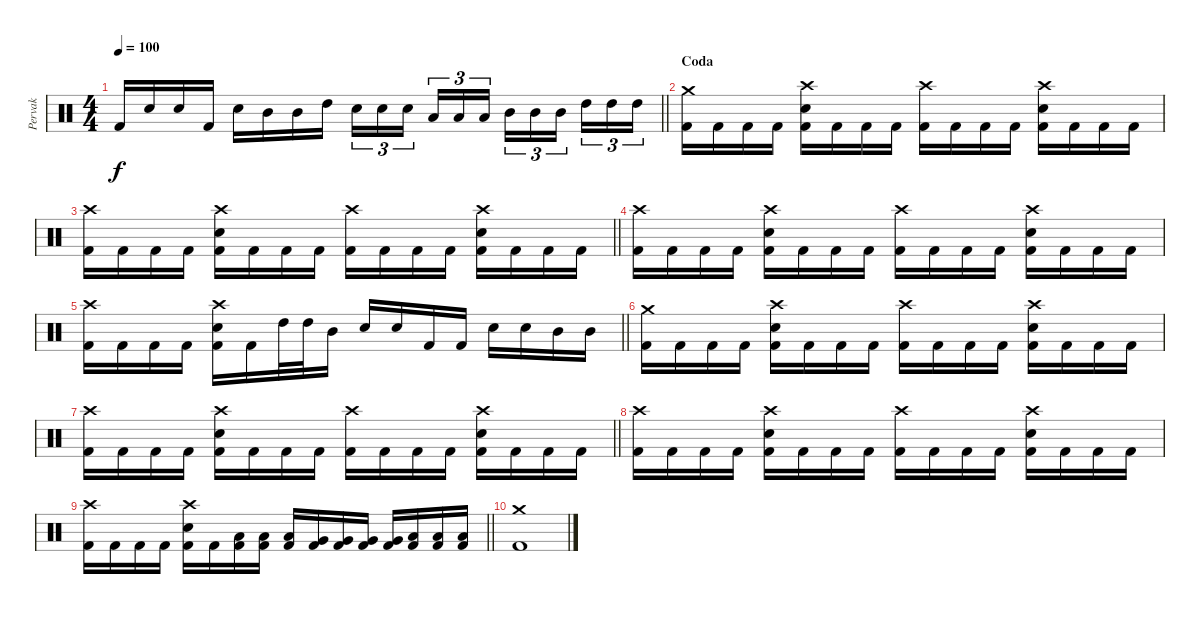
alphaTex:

\track ("Pervak" "Pervak") {instrument percussion}
\staff {score}
\articulation defaults
\ts (4 4)
\tempo 100
\clef neutral
\barLineRight lightlight
\ks c "Kick (hit) 2".16{dy f} "Electric Snare (hit)".16 "Electric Snare (hit)".16 "Kick (hit) 2".16 "Electric Snare (hit)".16 "Mid Tom (hit)".16 "Mid Tom (hit)".16 "High Tom (hit)".16 "Electric Snare (hit)".16{tu (3 2)} "Electric Snare (hit)".16{tu (3 2)} "Electric Snare (hit)".16{tu (3 2) beam splitsecondary} "Low Tom (hit)".16{tu (3 2)} "Low Tom (hit)".16{tu (3 2)} "Low Tom (hit)".16{tu (3 2)} "Mid Tom (hit)".16{tu (3 2)} "Mid Tom (hit)".16{tu (3 2)} "Mid Tom (hit)".16{tu (3 2) beam splitsecondary} "High Tom (hit)".16{tu (3 2)} "High Tom (hit)".16{tu (3 2)} "High Tom (hit)".16{tu (3 2)}
|
\section ("" "Coda")
("Crash medium (hit)" "Kick (hit) 2").16 "Kick (hit) 2".16 "Kick (hit) 2".16 "Kick (hit) 2".16 ("Crash high (hit)" "Electric Snare (hit)" "Kick (hit) 2").16 "Kick (hit) 2".16 "Kick (hit) 2".16 "Kick (hit) 2".16 ("Crash high (hit)" "Kick (hit) 2").16 "Kick (hit) 2".16 "Kick (hit) 2".16 "Kick (hit) 2".16 ("Crash high (hit)" "Electric Snare (hit)" "Kick (hit) 2").16 "Kick (hit) 2".16 "Kick (hit) 2".16 "Kick (hit) 2".16 |
\barLineRight lightlight
("Crash high (hit)" "Kick (hit) 2").16 "Kick (hit) 2".16 "Kick (hit) 2".16 "Kick (hit) 2".16 ("Crash high (hit)" "Electric Snare (hit)" "Kick (hit) 2").16 "Kick (hit) 2".16 "Kick (hit) 2".16 "Kick (hit) 2".16 ("Crash high (hit)" "Kick (hit) 2").16 "Kick (hit) 2".16 "Kick (hit) 2".16 "Kick (hit) 2".16 ("Crash high (hit)" "Electric Snare (hit)" "Kick (hit) 2").16 "Kick (hit) 2".16 "Kick (hit) 2".16 "Kick (hit) 2".16 |
("Crash high (hit)" "Kick (hit) 2").16 "Kick (hit) 2".16 "Kick (hit) 2".16 "Kick (hit) 2".16 ("Crash high (hit)" "Electric Snare (hit)" "Kick (hit) 2").16 "Kick (hit) 2".16 "Kick (hit) 2".16 "Kick (hit) 2".16 ("Crash high (hit)" "Kick (hit) 2").16 "Kick (hit) 2".16 "Kick (hit) 2".16 "Kick (hit) 2".16 ("Crash high (hit)" "Electric Snare (hit)" "Kick (hit) 2").16 "Kick (hit) 2".16 "Kick (hit) 2".16 "Kick (hit) 2".16 |
\barLineRight lightlight
("Crash high (hit)" "Kick (hit) 2").16 "Kick (hit) 2".16 "Kick (hit) 2".16 "Kick (hit) 2".16 ("Crash high (hit)" "Electric Snare (hit)" "Kick (hit) 2").16 "Kick (hit) 2".16 "High Tom (hit)".32 "High Tom (hit)".32 "Mid Tom (hit)".16 "Electric Snare (hit)".16 "Electric Snare (hit)".16 "Kick (hit) 2".16 "Kick (hit) 2".16 "Electric Snare (hit)".16 "Electric Snare (hit)".16 "Mid Tom (hit)".16 "Mid Tom (hit)".16 |
("Crash medium (hit)" "Kick (hit) 2").16 "Kick (hit) 2".16 "Kick (hit) 2".16 "Kick (hit) 2".16 ("Crash high (hit)" "Electric Snare (hit)" "Kick (hit) 2").16 "Kick (hit) 2".16 "Kick (hit) 2".16 "Kick (hit) 2".16 ("Crash high (hit)" "Kick (hit) 2").16 "Kick (hit) 2".16 "Kick (hit) 2".16 "Kick (hit) 2".16 ("Crash high (hit)" "Electric Snare (hit)" "Kick (hit) 2").16 "Kick (hit) 2".16 "Kick (hit) 2".16 "Kick (hit) 2".16 |
\barLineRight lightlight
("Crash high (hit)" "Kick (hit) 2").16 "Kick (hit) 2".16 "Kick (hit) 2".16 "Kick (hit) 2".16 ("Crash high (hit)" "Electric Snare (hit)" "Kick (hit) 2").16 "Kick (hit) 2".16 "Kick (hit) 2".16 "Kick (hit) 2".16 ("Crash high (hit)" "Kick (hit) 2").16 "Kick (hit) 2".16 "Kick (hit) 2".16 "Kick (hit) 2".16 ("Crash high (hit)" "Electric Snare (hit)" "Kick (hit) 2").16 "Kick (hit) 2".16 "Kick (hit) 2".16 "Kick (hit) 2".16 |
("Crash high (hit)" "Kick (hit) 2").16 "Kick (hit) 2".16 "Kick (hit) 2".16 "Kick (hit) 2".16 ("Crash high (hit)" "Electric Snare (hit)" "Kick (hit) 2").16 "Kick (hit) 2".16 "Kick (hit) 2".16 "Kick (hit) 2".16 ("Crash high (hit)" "Kick (hit) 2").16 "Kick (hit) 2".16 "Kick (hit) 2".16 "Kick (hit) 2".16 ("Crash high (hit)" "Electric Snare (hit)" "Kick (hit) 2").16 "Kick (hit) 2".16 "Kick (hit) 2".16 "Kick (hit) 2".16 |
\barLineRight lightlight
("Crash high (hit)" "Kick (hit) 2").16 "Kick (hit) 2".16 "Kick (hit) 2".16 "Kick (hit) 2".16 ("Crash high (hit)" "Electric Snare (hit)" "Kick (hit) 2").16 "Kick (hit) 2".16 ("Low Tom (hit)" "Kick (hit) 2").16 ("Low Tom (hit)" "Kick (hit) 2").16 ("Low Tom (hit)" "Kick (hit) 2").16 ("Very Low Tom (hit)" "Kick (hit) 2").16 ("Very Low Tom (hit)" "Kick (hit) 2").16 ("Very Low Tom (hit)" "Kick (hit) 2").16 ("Very Low Tom (hit)" "Kick (hit) 2").16 ("Low Floor Tom (hit)" "Kick (hit) 2").16 ("Low Floor Tom (hit)" "Kick (hit) 2").16 ("Low Floor Tom (hit)" "Kick (hit) 2").16 |
("Crash medium (hit)" "Kick (hit) 2").1
